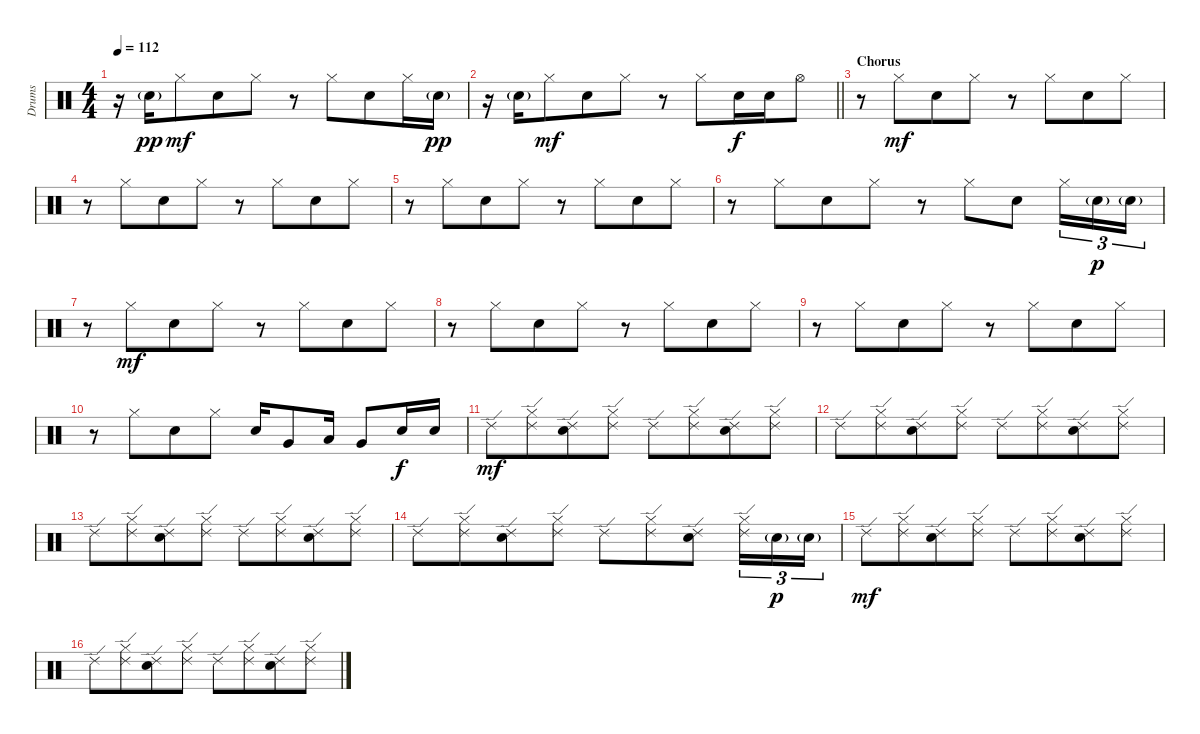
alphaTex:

\track ("Drums" "Drums") {instrument percussion}
\staff {score}
\articulation defaults
\ts (4 4)
\tempo 112
\clef neutral
\ks c
r.16{dy pp} "Electric Snare (hit)"{g}.16 "Hi-Hat (closed)".8{dy mf beam merge} "Electric Snare (hit)".8 "Hi-Hat (closed)".8 r.8 "Hi-Hat (closed)".8{beam merge} "Electric Snare (hit)".8 "Hi-Hat (closed)".16 "Electric Snare (hit)"{g}.16{dy pp} |
\barLineRight lightlight
r.16 "Electric Snare (hit)"{g}.16 "Hi-Hat (closed)".8{dy mf beam merge} "Electric Snare (hit)".8 "Hi-Hat (closed)".8 r.8 "Hi-Hat (closed)".8{beam merge} "Electric Snare (hit)".16{dy f beam merge} "Electric Snare (hit)".16 "Hi-Hat (open)".8 |
\section ("" "Chorus")
r.8 "Hi-Hat (closed)".8{dy mf beam merge} "Electric Snare (hit)".8 "Hi-Hat (closed)".8 r.8 "Hi-Hat (closed)".8{beam merge} "Electric Snare (hit)".8 "Hi-Hat (closed)".8 |
r.8 "Hi-Hat (closed)".8{beam merge} "Electric Snare (hit)".8 "Hi-Hat (closed)".8 r.8 "Hi-Hat (closed)".8{beam merge} "Electric Snare (hit)".8 "Hi-Hat (closed)".8 |
r.8 "Hi-Hat (closed)".8{beam merge} "Electric Snare (hit)".8 "Hi-Hat (closed)".8 r.8 "Hi-Hat (closed)".8{beam merge} "Electric Snare (hit)".8 "Hi-Hat (closed)".8 |
r.8 "Hi-Hat (closed)".8{beam merge} "Electric Snare (hit)".8 "Hi-Hat (closed)".8 r.8 "Hi-Hat (closed)".8{beam merge} "Electric Snare (hit)".8 "Hi-Hat (closed)".16{tu (3 2)} "Electric Snare (hit)"{g}.16{tu (3 2) dy p} "Electric Snare (hit)"{g}.16{tu (3 2)} |
r.8 "Hi-Hat (closed)".8{dy mf beam merge} "Electric Snare (hit)".8 "Hi-Hat (closed)".8 r.8 "Hi-Hat (closed)".8{beam merge} "Electric Snare (hit)".8 "Hi-Hat (closed)".8 |
r.8 "Hi-Hat (closed)".8{beam merge} "Electric Snare (hit)".8 "Hi-Hat (closed)".8 r.8 "Hi-Hat (closed)".8{beam merge} "Electric Snare (hit)".8 "Hi-Hat (closed)".8 |
r.8 "Hi-Hat (closed)".8{beam merge} "Electric Snare (hit)".8 "Hi-Hat (closed)".8 r.8 "Hi-Hat (closed)".8{beam merge} "Electric Snare (hit)".8 "Hi-Hat (closed)".8 |
r.8 "Hi-Hat (closed)".8{beam merge} "Electric Snare (hit)".8 "Hi-Hat (closed)".8 "Electric Snare (hit)".16 "Very Low Tom (hit)".8 "Low Tom (hit)".16 "Very Low Tom (hit)".8 "Electric Snare (hit)".16{dy f} "Electric Snare (hit)".16 |
"Ride (edge) 2".8{dy mf} ("Hi-Hat (closed)" "Ride (edge) 2").8{beam merge} ("Ride (edge) 2" "Electric Snare (hit)").8 ("Hi-Hat (closed)" "Ride (edge) 2").8 "Ride (edge) 2".8 ("Hi-Hat (closed)" "Ride (edge) 2").8{beam merge} ("Ride (edge) 2" "Electric Snare (hit)").8 ("Hi-Hat (closed)" "Ride (edge) 2").8 |
"Ride (edge) 2".8 ("Hi-Hat (closed)" "Ride (edge) 2").8{beam merge} ("Ride (edge) 2" "Electric Snare (hit)").8 ("Hi-Hat (closed)" "Ride (edge) 2").8 "Ride (edge) 2".8 ("Hi-Hat (closed)" "Ride (edge) 2").8{beam merge} ("Ride (edge) 2" "Electric Snare (hit)").8 ("Hi-Hat (closed)" "Ride (edge) 2").8 |
"Ride (edge) 2".8 ("Hi-Hat (closed)" "Ride (edge) 2").8{beam merge} ("Ride (edge) 2" "Electric Snare (hit)").8 ("Hi-Hat (closed)" "Ride (edge) 2").8 "Ride (edge) 2".8 ("Hi-Hat (closed)" "Ride (edge) 2").8{beam merge} ("Ride (edge) 2" "Electric Snare (hit)").8 ("Hi-Hat (closed)" "Ride (edge) 2").8 |
"Ride (edge) 2".8 ("Hi-Hat (closed)" "Ride (edge) 2").8{beam merge} ("Ride (edge) 2" "Electric Snare (hit)").8 ("Hi-Hat (closed)" "Ride (edge) 2").8 "Ride (edge) 2".8 ("Hi-Hat (closed)" "Ride (edge) 2").8{beam merge} ("Ride (edge) 2" "Electric Snare (hit)").8 ("Hi-Hat (closed)" "Ride (edge) 2").16{tu (3 2)} "Electric Snare (hit)"{g}.16{tu (3 2) dy p} "Electric Snare (hit)"{g}.16{tu (3 2)} |
"Ride (edge) 2".8{dy mf} ("Hi-Hat (closed)" "Ride (edge) 2").8{beam merge} ("Ride (edge) 2" "Electric Snare (hit)").8 ("Hi-Hat (closed)" "Ride (edge) 2").8 "Ride (edge) 2".8 ("Hi-Hat (closed)" "Ride (edge) 2").8{beam merge} ("Ride (edge) 2" "Electric Snare (hit)").8 ("Hi-Hat (closed)" "Ride (edge) 2").8 |
"Ride (edge) 2".8 ("Hi-Hat (closed)" "Ride (edge) 2").8{beam merge} ("Ride (edge) 2" "Electric Snare (hit)").8 ("Hi-Hat (closed)" "Ride (edge) 2").8 "Ride (edge) 2".8 ("Hi-Hat (closed)" "Ride (edge) 2").8{beam merge} ("Ride (edge) 2" "Electric Snare (hit)").8 ("Hi-Hat (closed)" "Ride (edge) 2").8
